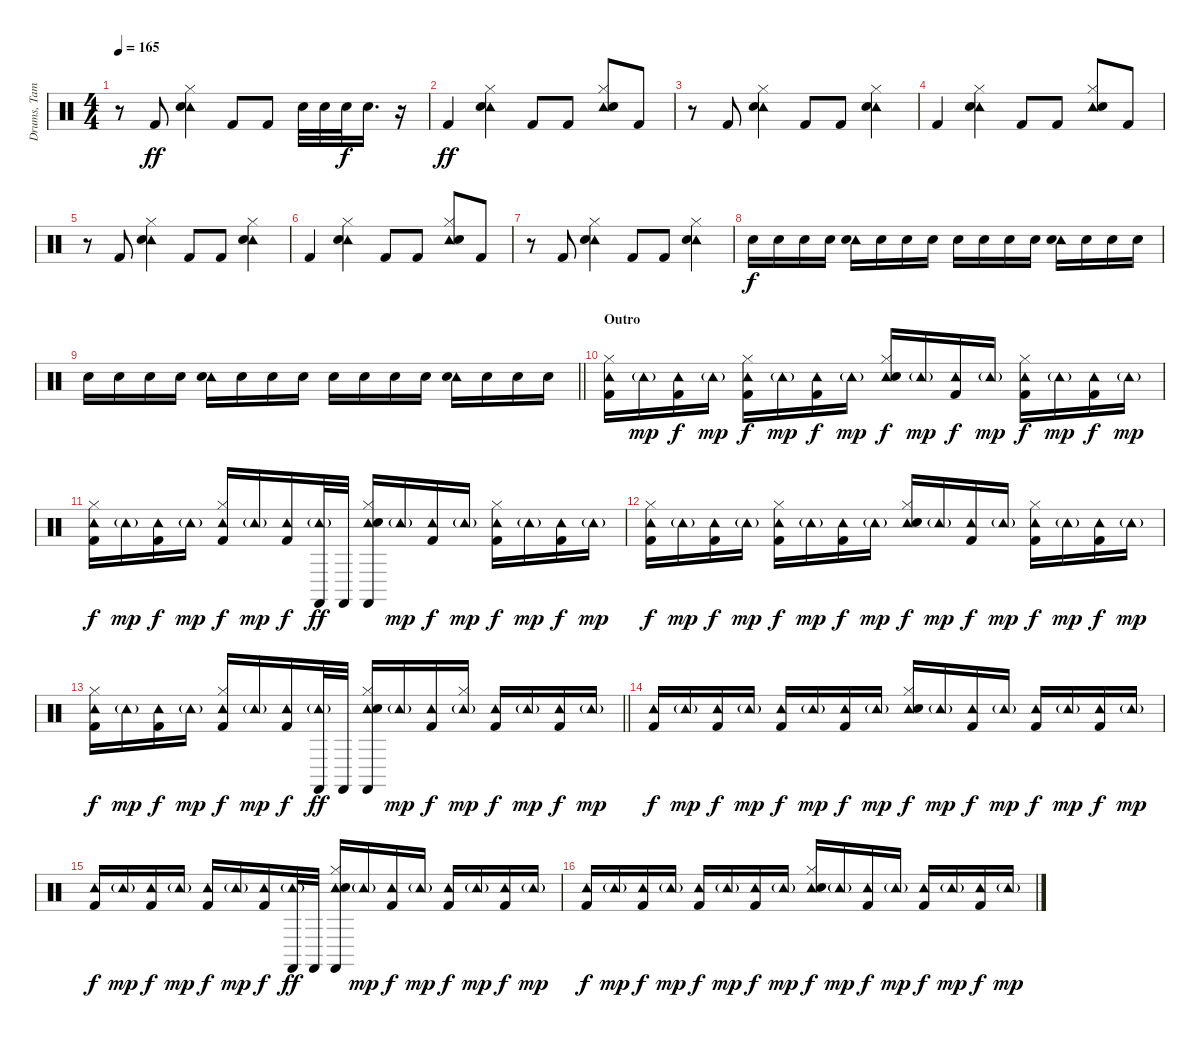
\track ("Drums, Tambourine, Castinets" "Drums, Tam") {instrument percussion}
\staff {score}
\articulation defaults
\ts (4 4)
\tempo 165
\clef neutral
\ks c
r.8{dy ff} "Kick (hit) 2".8 ("Tambourine (hit)" "Hi-Hat (closed)" "Snare (hit) 2").4 "Kick (hit) 2".8 "Kick (hit) 2".8 "Snare (hit) 2".32 "Snare (hit) 2".32 "Snare (hit) 2".32{dy f} "Snare (hit) 2".16{d} r.16 |
"Kick (hit) 2".4{dy ff} ("Tambourine (hit)" "Hi-Hat (closed)" "Snare (hit) 2").4 "Kick (hit) 2".8 "Kick (hit) 2".8 ("Tambourine (hit)" "Hi-Hat (closed)" "Snare (hit) 2").8 "Kick (hit) 2".8 |
r.8 "Kick (hit) 2".8 ("Tambourine (hit)" "Hi-Hat (closed)" "Snare (hit) 2").4 "Kick (hit) 2".8 "Kick (hit) 2".8 ("Tambourine (hit)" "Hi-Hat (closed)" "Snare (hit) 2").4 |
"Kick (hit) 2".4 ("Tambourine (hit)" "Hi-Hat (closed)" "Snare (hit) 2").4 "Kick (hit) 2".8 "Kick (hit) 2".8 ("Tambourine (hit)" "Hi-Hat (closed)" "Snare (hit) 2").8 "Kick (hit) 2".8 |
r.8 "Kick (hit) 2".8 ("Tambourine (hit)" "Hi-Hat (closed)" "Snare (hit) 2").4 "Kick (hit) 2".8 "Kick (hit) 2".8 ("Tambourine (hit)" "Hi-Hat (closed)" "Snare (hit) 2").4 |
"Kick (hit) 2".4 ("Tambourine (hit)" "Hi-Hat (closed)" "Snare (hit) 2").4 "Kick (hit) 2".8 "Kick (hit) 2".8 ("Tambourine (hit)" "Hi-Hat (closed)" "Snare (hit) 2").8 "Kick (hit) 2".8 |
r.8 "Kick (hit) 2".8 ("Tambourine (hit)" "Hi-Hat (closed)" "Snare (hit) 2").4 "Kick (hit) 2".8 "Kick (hit) 2".8 ("Tambourine (hit)" "Hi-Hat (closed)" "Snare (hit) 2").4 |
"Snare (hit) 2".16{dy f} "Snare (hit) 2".16 "Snare (hit) 2".16 "Snare (hit) 2".16 ("Tambourine (hit)" "Snare (hit) 2").16 "Snare (hit) 2".16 "Snare (hit) 2".16 "Snare (hit) 2".16 "Snare (hit) 2".16 "Snare (hit) 2".16 "Snare (hit) 2".16 "Snare (hit) 2".16 ("Tambourine (hit)" "Snare (hit) 2").16 "Snare (hit) 2".16 "Snare (hit) 2".16 "Snare (hit) 2".16 |
\barLineRight lightlight "Snare (hit) 2".16 "Snare (hit) 2".16 "Snare (hit) 2".16 "Snare (hit) 2".16
("Tambourine (hit)" "Snare (hit) 2").16 "Snare (hit) 2".16 "Snare (hit) 2".16 "Snare (hit) 2".16 "Snare (hit) 2".16 "Snare (hit) 2".16 "Snare (hit) 2".16 "Snare (hit) 2".16 ("Tambourine (hit)" "Snare (hit) 2").16 "Snare (hit) 2".16 "Snare (hit) 2".16 "Snare (hit) 2".16 |
\section ("" "Outro")
("Tambourine (hit)" "Hi-Hat (closed)" "Kick (hit) 2").16 "Tambourine (hit)"{g}.16{dy mp} ("Tambourine (hit)" "Kick (hit) 2").16{dy f} "Tambourine (hit)"{g}.16{dy mp} ("Tambourine (hit)" "Hi-Hat (closed)" "Kick (hit) 2").16{dy f} "Tambourine (hit)"{g}.16{dy mp} ("Tambourine (hit)" "Kick (hit) 2").16{dy f} "Tambourine (hit)"{g}.16{dy mp} ("Tambourine (hit)" "Hi-Hat (closed)" "Snare (hit) 2").16{dy f} "Tambourine (hit)"{g}.16{dy mp} ("Tambourine (hit)" "Kick (hit) 2").16{dy f} "Tambourine (hit)"{g}.16{dy mp} ("Tambourine (hit)" "Hi-Hat (closed)" "Kick (hit) 2").16{dy f} "Tambourine (hit)"{g}.16{dy mp} ("Tambourine (hit)" "Kick (hit) 2").16{dy f} "Tambourine (hit)"{g}.16{dy mp} |
("Tambourine (hit)" "Hi-Hat (closed)" "Kick (hit) 2").16{dy f} "Tambourine (hit)"{g}.16{dy mp} ("Tambourine (hit)" "Kick (hit) 2").16{dy f} "Tambourine (hit)"{g}.16{dy mp} ("Tambourine (hit)" "Hi-Hat (closed)" "Kick (hit) 2").16{dy f} "Tambourine (hit)"{g}.16{dy mp} ("Tambourine (hit)" "Kick (hit) 2").16{dy f} ("Tambourine (hit)"{g} "Castanets (hit)").32{dy ff} "Castanets (hit)".32 ("Tambourine (hit)" "Hi-Hat (closed)" "Snare (hit) 2" "Castanets (hit)").16 "Tambourine (hit)"{g}.16{dy mp} ("Tambourine (hit)" "Kick (hit) 2").16{dy f} "Tambourine (hit)"{g}.16{dy mp} ("Tambourine (hit)" "Hi-Hat (closed)" "Kick (hit) 2").16{dy f} "Tambourine (hit)"{g}.16{dy mp} ("Tambourine (hit)" "Kick (hit) 2").16{dy f} "Tambourine (hit)"{g}.16{dy mp} |
("Tambourine (hit)" "Hi-Hat (closed)" "Kick (hit) 2").16{dy f} "Tambourine (hit)"{g}.16{dy mp} ("Tambourine (hit)" "Kick (hit) 2").16{dy f} "Tambourine (hit)"{g}.16{dy mp} ("Tambourine (hit)" "Hi-Hat (closed)" "Kick (hit) 2").16{dy f} "Tambourine (hit)"{g}.16{dy mp} ("Tambourine (hit)" "Kick (hit) 2").16{dy f} "Tambourine (hit)"{g}.16{dy mp} ("Tambourine (hit)" "Hi-Hat (closed)" "Snare (hit) 2").16{dy f} "Tambourine (hit)"{g}.16{dy mp} ("Tambourine (hit)" "Kick (hit) 2").16{dy f} "Tambourine (hit)"{g}.16{dy mp} ("Tambourine (hit)" "Hi-Hat (closed)" "Kick (hit) 2").16{dy f} "Tambourine (hit)"{g}.16{dy mp} ("Tambourine (hit)" "Kick (hit) 2").16{dy f} "Tambourine (hit)"{g}.16{dy mp} |
\barLineRight lightlight
("Tambourine (hit)" "Hi-Hat (closed)" "Kick (hit) 2").16{dy f} "Tambourine (hit)"{g}.16{dy mp} ("Tambourine (hit)" "Kick (hit) 2").16{dy f} "Tambourine (hit)"{g}.16{dy mp} ("Tambourine (hit)" "Hi-Hat (closed)" "Kick (hit) 2").16{dy f} "Tambourine (hit)"{g}.16{dy mp} ("Tambourine (hit)" "Kick (hit) 2").16{dy f} ("Tambourine (hit)"{g} "Castanets (hit)").32{dy ff} "Castanets (hit)".32 ("Tambourine (hit)" "Hi-Hat (closed)" "Snare (hit) 2" "Castanets (hit)").16 "Tambourine (hit)"{g}.16{dy mp} ("Tambourine (hit)" "Kick (hit) 2").16{dy f} ("Tambourine (hit)"{g} "Hi-Hat (closed)").16{dy mp} ("Tambourine (hit)" "Kick (hit) 2").16{dy f} "Tambourine (hit)"{g}.16{dy mp} ("Tambourine (hit)" "Kick (hit) 2").16{dy f} "Tambourine (hit)"{g}.16{dy mp} |
("Tambourine (hit)" "Kick (hit) 2").16{dy f} "Tambourine (hit)"{g}.16{dy mp} ("Tambourine (hit)" "Kick (hit) 2").16{dy f} "Tambourine (hit)"{g}.16{dy mp} ("Tambourine (hit)" "Kick (hit) 2").16{dy f} "Tambourine (hit)"{g}.16{dy mp} ("Tambourine (hit)" "Kick (hit) 2").16{dy f} "Tambourine (hit)"{g}.16{dy mp} ("Tambourine (hit)" "Hi-Hat (closed)" "Snare (hit) 2").16{dy f} "Tambourine (hit)"{g}.16{dy mp} ("Tambourine (hit)" "Kick (hit) 2").16{dy f} "Tambourine (hit)"{g}.16{dy mp} ("Tambourine (hit)" "Kick (hit) 2").16{dy f} "Tambourine (hit)"{g}.16{dy mp} ("Tambourine (hit)" "Kick (hit) 2").16{dy f} "Tambourine (hit)"{g}.16{dy mp} |
("Tambourine (hit)" "Kick (hit) 2").16{dy f} "Tambourine (hit)"{g}.16{dy mp} ("Tambourine (hit)" "Kick (hit) 2").16{dy f} "Tambourine (hit)"{g}.16{dy mp} ("Tambourine (hit)" "Kick (hit) 2").16{dy f} "Tambourine (hit)"{g}.16{dy mp} ("Tambourine (hit)" "Kick (hit) 2").16{dy f} ("Tambourine (hit)"{g} "Castanets (hit)").32{dy ff} "Castanets (hit)".32 ("Tambourine (hit)" "Hi-Hat (closed)" "Snare (hit) 2" "Castanets (hit)").16 "Tambourine (hit)"{g}.16{dy mp} ("Tambourine (hit)" "Kick (hit) 2").16{dy f} "Tambourine (hit)"{g}.16{dy mp} ("Tambourine (hit)" "Kick (hit) 2").16{dy f} "Tambourine (hit)"{g}.16{dy mp} ("Tambourine (hit)" "Kick (hit) 2").16{dy f} "Tambourine (hit)"{g}.16{dy mp} |
("Tambourine (hit)" "Kick (hit) 2").16{dy f} "Tambourine (hit)"{g}.16{dy mp} ("Tambourine (hit)" "Kick (hit) 2").16{dy f} "Tambourine (hit)"{g}.16{dy mp} ("Tambourine (hit)" "Kick (hit) 2").16{dy f} "Tambourine (hit)"{g}.16{dy mp} ("Tambourine (hit)" "Kick (hit) 2").16{dy f} "Tambourine (hit)"{g}.16{dy mp} ("Tambourine (hit)" "Hi-Hat (closed)" "Snare (hit) 2").16{dy f} "Tambourine (hit)"{g}.16{dy mp} ("Tambourine (hit)" "Kick (hit) 2").16{dy f} "Tambourine (hit)"{g}.16{dy mp} ("Tambourine (hit)" "Kick (hit) 2").16{dy f} "Tambourine (hit)"{g}.16{dy mp} ("Tambourine (hit)" "Kick (hit) 2").16{dy f} "Tambourine (hit)"{g}.16{dy mp}
